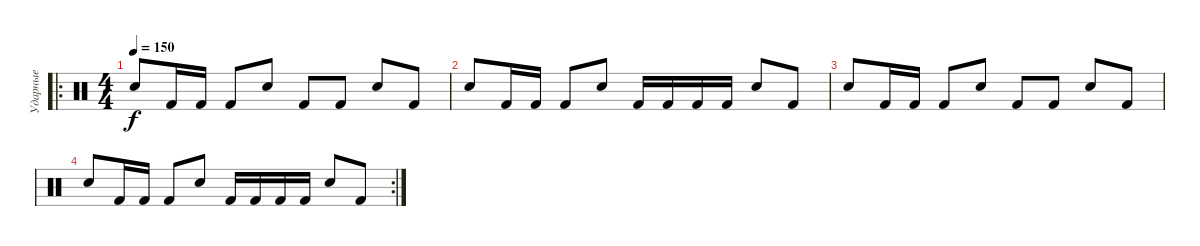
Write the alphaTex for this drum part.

\track ("Ударные" "Ударные") {instrument percussion}
\staff {score}
\articulation defaults
\ro
\ts (4 4)
\tempo 150
\clef neutral
\ks c "Snare (hit) 2".8{dy f} "Kick (hit) 2".16 "Kick (hit) 2".16 "Kick (hit) 2".8 "Hand Clap (hit)".8 "Kick (hit) 2".8 "Kick (hit) 2".8 "Hand Clap (hit)".8 "Kick (hit) 2".8
|
"Snare (hit) 2".8 "Kick (hit) 2".16 "Kick (hit) 2".16 "Kick (hit) 2".8 "Hand Clap (hit)".8 "Kick (hit) 2".16 "Kick (hit) 2".16 "Kick (hit) 2".16 "Kick (hit) 2".16 "Hand Clap (hit)".8 "Kick (hit) 2".8 |
"Snare (hit) 2".8 "Kick (hit) 2".16 "Kick (hit) 2".16 "Kick (hit) 2".8 "Hand Clap (hit)".8 "Kick (hit) 2".8 "Kick (hit) 2".8 "Hand Clap (hit)".8 "Kick (hit) 2".8 |
\rc 2 "Snare (hit) 2".8 "Kick (hit) 2".16 "Kick (hit) 2".16 "Kick (hit) 2".8 "Hand Clap (hit)".8 "Kick (hit) 2".16 "Kick (hit) 2".16 "Kick (hit) 2".16 "Kick (hit) 2".16 "Hand Clap (hit)".8 "Kick (hit) 2".8
